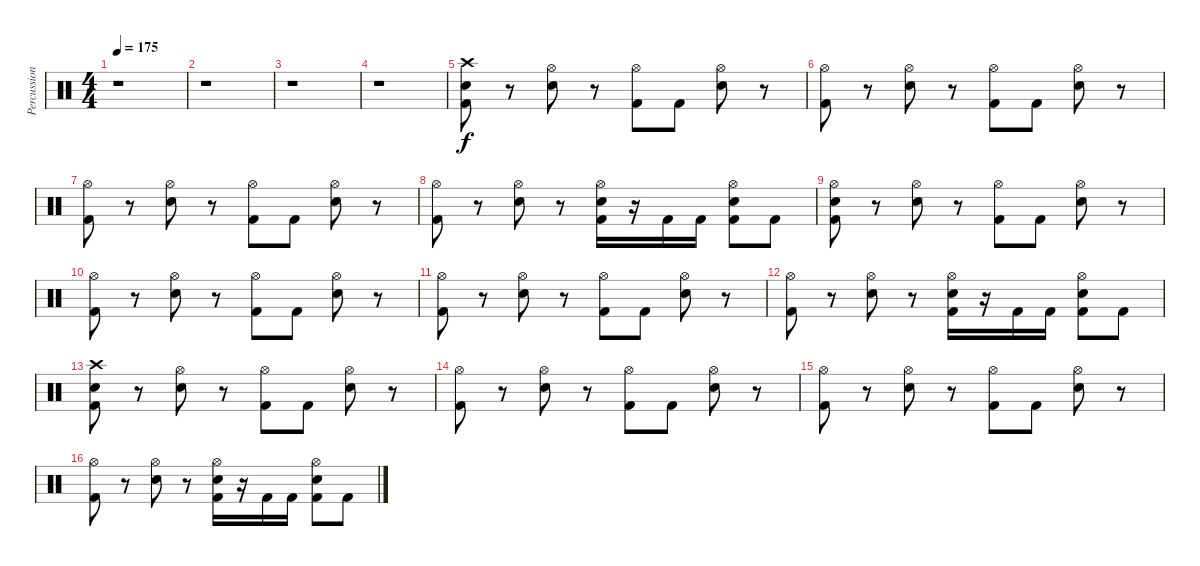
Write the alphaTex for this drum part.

\track ("Percussions" "Percussion") {instrument percussion}
\staff {score}
\articulation defaults
\ts (4 4)
\tempo 175
\clef neutral
\ks c
r.1{dy f} |
r.1 |
r.1 |
r.1 |
("Kick (hit) 2" "Electric Snare (hit)" "Crash high (hit)").8 r.8 ("Electric Snare (hit)" "Hi-Hat (open)").8 r.8 ("Kick (hit) 2" "Hi-Hat (open)").8 "Kick (hit) 2".8 ("Electric Snare (hit)" "Hi-Hat (open)").8 r.8 |
("Kick (hit) 2" "Hi-Hat (open)").8 r.8 ("Electric Snare (hit)" "Hi-Hat (open)").8 r.8 ("Kick (hit) 2" "Hi-Hat (open)").8 "Kick (hit) 2".8 ("Electric Snare (hit)" "Hi-Hat (open)").8 r.8 |
("Kick (hit) 2" "Hi-Hat (open)").8 r.8 ("Electric Snare (hit)" "Hi-Hat (open)").8 r.8 ("Kick (hit) 2" "Hi-Hat (open)").8 "Kick (hit) 2".8 ("Electric Snare (hit)" "Hi-Hat (open)").8 r.8 |
("Kick (hit) 2" "Hi-Hat (open)").8 r.8 ("Electric Snare (hit)" "Hi-Hat (open)").8 r.8 ("Kick (hit) 2" "Electric Snare (hit)" "Hi-Hat (open)").16 r.16 "Kick (hit) 2".16 "Kick (hit) 2".16 ("Kick (hit) 2" "Electric Snare (hit)" "Hi-Hat (open)").8 "Kick (hit) 2".8 |
("Kick (hit) 2" "Electric Snare (hit)" "Hi-Hat (open)").8 r.8 ("Electric Snare (hit)" "Hi-Hat (open)").8 r.8 ("Kick (hit) 2" "Hi-Hat (open)").8 "Kick (hit) 2".8 ("Electric Snare (hit)" "Hi-Hat (open)").8 r.8 |
("Kick (hit) 2" "Hi-Hat (open)").8 r.8 ("Electric Snare (hit)" "Hi-Hat (open)").8 r.8 ("Kick (hit) 2" "Hi-Hat (open)").8 "Kick (hit) 2".8 ("Electric Snare (hit)" "Hi-Hat (open)").8 r.8 |
("Kick (hit) 2" "Hi-Hat (open)").8 r.8 ("Electric Snare (hit)" "Hi-Hat (open)").8 r.8 ("Kick (hit) 2" "Hi-Hat (open)").8 "Kick (hit) 2".8 ("Electric Snare (hit)" "Hi-Hat (open)").8 r.8 |
("Kick (hit) 2" "Hi-Hat (open)").8 r.8 ("Electric Snare (hit)" "Hi-Hat (open)").8 r.8 ("Kick (hit) 2" "Electric Snare (hit)" "Hi-Hat (open)").16 r.16 "Kick (hit) 2".16 "Kick (hit) 2".16 ("Kick (hit) 2" "Electric Snare (hit)" "Hi-Hat (open)").8 "Kick (hit) 2".8 |
("Kick (hit) 2" "Electric Snare (hit)" "Crash high (hit)").8 r.8 ("Electric Snare (hit)" "Hi-Hat (open)").8 r.8 ("Kick (hit) 2" "Hi-Hat (open)").8 "Kick (hit) 2".8 ("Electric Snare (hit)" "Hi-Hat (open)").8 r.8 |
("Kick (hit) 2" "Hi-Hat (open)").8 r.8 ("Electric Snare (hit)" "Hi-Hat (open)").8 r.8 ("Kick (hit) 2" "Hi-Hat (open)").8 "Kick (hit) 2".8 ("Electric Snare (hit)" "Hi-Hat (open)").8 r.8 |
("Kick (hit) 2" "Hi-Hat (open)").8 r.8 ("Electric Snare (hit)" "Hi-Hat (open)").8 r.8 ("Kick (hit) 2" "Hi-Hat (open)").8 "Kick (hit) 2".8 ("Electric Snare (hit)" "Hi-Hat (open)").8 r.8 |
("Kick (hit) 2" "Hi-Hat (open)").8 r.8 ("Electric Snare (hit)" "Hi-Hat (open)").8 r.8 ("Kick (hit) 2" "Electric Snare (hit)" "Hi-Hat (open)").16 r.16 "Kick (hit) 2".16 "Kick (hit) 2".16 ("Kick (hit) 2" "Electric Snare (hit)" "Hi-Hat (open)").8 "Kick (hit) 2".8
